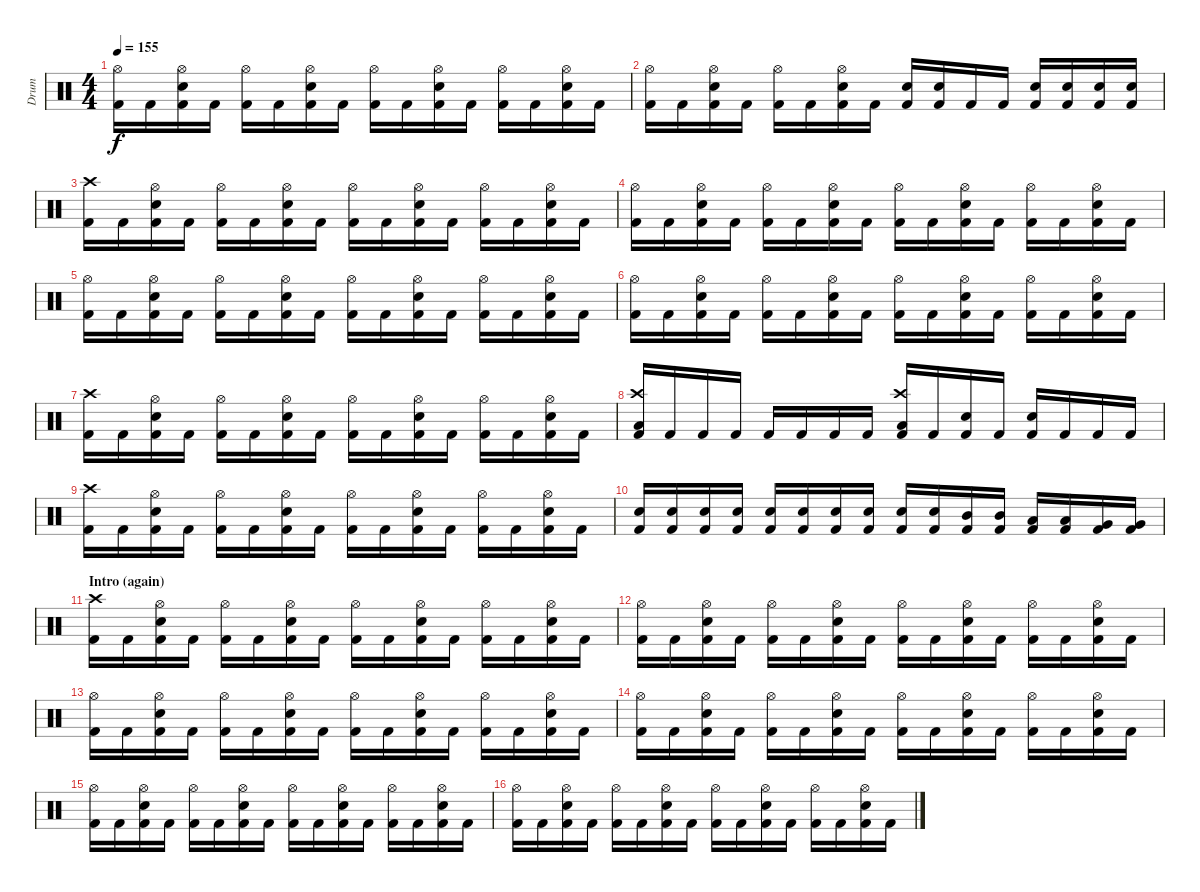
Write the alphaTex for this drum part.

\track ("Drum" "Drum") {instrument percussion}
\staff {score}
\articulation defaults
\ts (4 4)
\tempo 155
\clef neutral
\ks c
("Hi-Hat (open)" "Kick (hit) 2").16{dy f} "Kick (hit) 2".16 ("Hi-Hat (open)" "Electric Snare (hit)" "Kick (hit) 2").16 "Kick (hit) 2".16 ("Hi-Hat (open)" "Kick (hit) 2").16 "Kick (hit) 2".16 ("Hi-Hat (open)" "Electric Snare (hit)" "Kick (hit) 2").16 "Kick (hit) 2".16 ("Hi-Hat (open)" "Kick (hit) 2").16 "Kick (hit) 2".16 ("Hi-Hat (open)" "Electric Snare (hit)" "Kick (hit) 2").16 "Kick (hit) 2".16 ("Hi-Hat (open)" "Kick (hit) 2").16 "Kick (hit) 2".16 ("Hi-Hat (open)" "Electric Snare (hit)" "Kick (hit) 2").16 "Kick (hit) 2".16 |
("Hi-Hat (open)" "Kick (hit) 2").16 "Kick (hit) 2".16 ("Hi-Hat (open)" "Electric Snare (hit)" "Kick (hit) 2").16 "Kick (hit) 2".16 ("Hi-Hat (open)" "Kick (hit) 2").16 "Kick (hit) 2".16 ("Hi-Hat (open)" "Electric Snare (hit)" "Kick (hit) 2").16 "Kick (hit) 2".16 ("Electric Snare (hit)" "Kick (hit) 2").16 ("Electric Snare (hit)" "Kick (hit) 2").16 "Kick (hit) 2".16 "Kick (hit) 2".16 ("Electric Snare (hit)" "Kick (hit) 2").16 ("Electric Snare (hit)" "Kick (hit) 2").16 ("Electric Snare (hit)" "Kick (hit) 2").16 ("Electric Snare (hit)" "Kick (hit) 2").16 |
("Crash high (hit)" "Kick (hit) 2").16 "Kick (hit) 2".16 ("Hi-Hat (open)" "Electric Snare (hit)" "Kick (hit) 2").16 "Kick (hit) 2".16 ("Hi-Hat (open)" "Kick (hit) 2").16 "Kick (hit) 2".16 ("Hi-Hat (open)" "Electric Snare (hit)" "Kick (hit) 2").16 "Kick (hit) 2".16 ("Hi-Hat (open)" "Kick (hit) 2").16 "Kick (hit) 2".16 ("Hi-Hat (open)" "Electric Snare (hit)" "Kick (hit) 2").16 "Kick (hit) 2".16 ("Hi-Hat (open)" "Kick (hit) 2").16 "Kick (hit) 2".16 ("Hi-Hat (open)" "Electric Snare (hit)" "Kick (hit) 2").16 "Kick (hit) 2".16 |
("Hi-Hat (open)" "Kick (hit) 2").16 "Kick (hit) 2".16 ("Hi-Hat (open)" "Electric Snare (hit)" "Kick (hit) 2").16 "Kick (hit) 2".16 ("Hi-Hat (open)" "Kick (hit) 2").16 "Kick (hit) 2".16 ("Hi-Hat (open)" "Electric Snare (hit)" "Kick (hit) 2").16 "Kick (hit) 2".16 ("Hi-Hat (open)" "Kick (hit) 2").16 "Kick (hit) 2".16 ("Hi-Hat (open)" "Electric Snare (hit)" "Kick (hit) 2").16 "Kick (hit) 2".16 ("Hi-Hat (open)" "Kick (hit) 2").16 "Kick (hit) 2".16 ("Hi-Hat (open)" "Electric Snare (hit)" "Kick (hit) 2").16 "Kick (hit) 2".16 |
("Hi-Hat (open)" "Kick (hit) 2").16 "Kick (hit) 2".16 ("Hi-Hat (open)" "Electric Snare (hit)" "Kick (hit) 2").16 "Kick (hit) 2".16 ("Hi-Hat (open)" "Kick (hit) 2").16 "Kick (hit) 2".16 ("Hi-Hat (open)" "Electric Snare (hit)" "Kick (hit) 2").16 "Kick (hit) 2".16 ("Hi-Hat (open)" "Kick (hit) 2").16 "Kick (hit) 2".16 ("Hi-Hat (open)" "Electric Snare (hit)" "Kick (hit) 2").16 "Kick (hit) 2".16 ("Hi-Hat (open)" "Kick (hit) 2").16 "Kick (hit) 2".16 ("Hi-Hat (open)" "Electric Snare (hit)" "Kick (hit) 2").16 "Kick (hit) 2".16 |
("Hi-Hat (open)" "Kick (hit) 2").16 "Kick (hit) 2".16 ("Hi-Hat (open)" "Electric Snare (hit)" "Kick (hit) 2").16 "Kick (hit) 2".16 ("Hi-Hat (open)" "Kick (hit) 2").16 "Kick (hit) 2".16 ("Hi-Hat (open)" "Electric Snare (hit)" "Kick (hit) 2").16 "Kick (hit) 2".16 ("Hi-Hat (open)" "Kick (hit) 2").16 "Kick (hit) 2".16 ("Hi-Hat (open)" "Electric Snare (hit)" "Kick (hit) 2").16 "Kick (hit) 2".16 ("Hi-Hat (open)" "Kick (hit) 2").16 "Kick (hit) 2".16 ("Hi-Hat (open)" "Electric Snare (hit)" "Kick (hit) 2").16 "Kick (hit) 2".16 |
("Crash high (hit)" "Kick (hit) 2").16 "Kick (hit) 2".16 ("Hi-Hat (open)" "Electric Snare (hit)" "Kick (hit) 2").16 "Kick (hit) 2".16 ("Hi-Hat (open)" "Kick (hit) 2").16 "Kick (hit) 2".16 ("Hi-Hat (open)" "Electric Snare (hit)" "Kick (hit) 2").16 "Kick (hit) 2".16 ("Hi-Hat (open)" "Kick (hit) 2").16 "Kick (hit) 2".16 ("Hi-Hat (open)" "Electric Snare (hit)" "Kick (hit) 2").16 "Kick (hit) 2".16 ("Hi-Hat (open)" "Kick (hit) 2").16 "Kick (hit) 2".16 ("Hi-Hat (open)" "Electric Snare (hit)" "Kick (hit) 2").16 "Kick (hit) 2".16 |
("Crash high (hit)" "Low Tom (hit)" "Kick (hit) 2").16 "Kick (hit) 2".16 "Kick (hit) 2".16 "Kick (hit) 2".16 "Kick (hit) 2".16 "Kick (hit) 2".16 "Kick (hit) 2".16 "Kick (hit) 2".16 ("Crash high (hit)" "Low Tom (hit)" "Kick (hit) 2").16 "Kick (hit) 2".16 ("Electric Snare (hit)" "Kick (hit) 2").16 "Kick (hit) 2".16 ("Electric Snare (hit)" "Kick (hit) 2").16 "Kick (hit) 2".16 "Kick (hit) 2".16 "Kick (hit) 2".16 |
("Crash high (hit)" "Kick (hit) 2").16 "Kick (hit) 2".16 ("Hi-Hat (open)" "Electric Snare (hit)" "Kick (hit) 2").16 "Kick (hit) 2".16 ("Hi-Hat (open)" "Kick (hit) 2").16 "Kick (hit) 2".16 ("Hi-Hat (open)" "Electric Snare (hit)" "Kick (hit) 2").16 "Kick (hit) 2".16 ("Hi-Hat (open)" "Kick (hit) 2").16 "Kick (hit) 2".16 ("Hi-Hat (open)" "Electric Snare (hit)" "Kick (hit) 2").16 "Kick (hit) 2".16 ("Hi-Hat (open)" "Kick (hit) 2").16 "Kick (hit) 2".16 ("Hi-Hat (open)" "Electric Snare (hit)" "Kick (hit) 2").16 "Kick (hit) 2".16 |
("Electric Snare (hit)" "Kick (hit) 2").16 ("Electric Snare (hit)" "Kick (hit) 2").16 ("Electric Snare (hit)" "Kick (hit) 2").16 ("Electric Snare (hit)" "Kick (hit) 2").16 ("Electric Snare (hit)" "Kick (hit) 2").16 ("Electric Snare (hit)" "Kick (hit) 2").16 ("Electric Snare (hit)" "Kick (hit) 2").16 ("Electric Snare (hit)" "Kick (hit) 2").16 ("Electric Snare (hit)" "Kick (hit) 2").16 ("Electric Snare (hit)" "Kick (hit) 2").16 ("Mid Tom (hit)" "Kick (hit) 2").16 ("Mid Tom (hit)" "Kick (hit) 2").16 ("Low Tom (hit)" "Kick (hit) 2").16 ("Low Tom (hit)" "Kick (hit) 2").16 ("Very Low Tom (hit)" "Kick (hit) 2").16 ("Very Low Tom (hit)" "Kick (hit) 2").16 |
\section ("" "Intro (again)")
("Crash high (hit)" "Kick (hit) 2").16 "Kick (hit) 2".16 ("Hi-Hat (open)" "Electric Snare (hit)" "Kick (hit) 2").16 "Kick (hit) 2".16 ("Hi-Hat (open)" "Kick (hit) 2").16 "Kick (hit) 2".16 ("Hi-Hat (open)" "Electric Snare (hit)" "Kick (hit) 2").16 "Kick (hit) 2".16 ("Hi-Hat (open)" "Kick (hit) 2").16 "Kick (hit) 2".16 ("Hi-Hat (open)" "Electric Snare (hit)" "Kick (hit) 2").16 "Kick (hit) 2".16 ("Hi-Hat (open)" "Kick (hit) 2").16 "Kick (hit) 2".16 ("Hi-Hat (open)" "Electric Snare (hit)" "Kick (hit) 2").16 "Kick (hit) 2".16 |
("Hi-Hat (open)" "Kick (hit) 2").16 "Kick (hit) 2".16 ("Hi-Hat (open)" "Electric Snare (hit)" "Kick (hit) 2").16 "Kick (hit) 2".16 ("Hi-Hat (open)" "Kick (hit) 2").16 "Kick (hit) 2".16 ("Hi-Hat (open)" "Electric Snare (hit)" "Kick (hit) 2").16 "Kick (hit) 2".16 ("Hi-Hat (open)" "Kick (hit) 2").16 "Kick (hit) 2".16 ("Hi-Hat (open)" "Electric Snare (hit)" "Kick (hit) 2").16 "Kick (hit) 2".16 ("Hi-Hat (open)" "Kick (hit) 2").16 "Kick (hit) 2".16 ("Hi-Hat (open)" "Electric Snare (hit)" "Kick (hit) 2").16 "Kick (hit) 2".16 |
("Hi-Hat (open)" "Kick (hit) 2").16 "Kick (hit) 2".16 ("Hi-Hat (open)" "Electric Snare (hit)" "Kick (hit) 2").16 "Kick (hit) 2".16 ("Hi-Hat (open)" "Kick (hit) 2").16 "Kick (hit) 2".16 ("Hi-Hat (open)" "Electric Snare (hit)" "Kick (hit) 2").16 "Kick (hit) 2".16 ("Hi-Hat (open)" "Kick (hit) 2").16 "Kick (hit) 2".16 ("Hi-Hat (open)" "Electric Snare (hit)" "Kick (hit) 2").16 "Kick (hit) 2".16 ("Hi-Hat (open)" "Kick (hit) 2").16 "Kick (hit) 2".16 ("Hi-Hat (open)" "Electric Snare (hit)" "Kick (hit) 2").16 "Kick (hit) 2".16 |
("Hi-Hat (open)" "Kick (hit) 2").16 "Kick (hit) 2".16 ("Hi-Hat (open)" "Electric Snare (hit)" "Kick (hit) 2").16 "Kick (hit) 2".16 ("Hi-Hat (open)" "Kick (hit) 2").16 "Kick (hit) 2".16 ("Hi-Hat (open)" "Electric Snare (hit)" "Kick (hit) 2").16 "Kick (hit) 2".16 ("Hi-Hat (open)" "Kick (hit) 2").16 "Kick (hit) 2".16 ("Hi-Hat (open)" "Electric Snare (hit)" "Kick (hit) 2").16 "Kick (hit) 2".16 ("Hi-Hat (open)" "Kick (hit) 2").16 "Kick (hit) 2".16 ("Hi-Hat (open)" "Electric Snare (hit)" "Kick (hit) 2").16 "Kick (hit) 2".16 |
("Hi-Hat (open)" "Kick (hit) 2").16 "Kick (hit) 2".16 ("Hi-Hat (open)" "Electric Snare (hit)" "Kick (hit) 2").16 "Kick (hit) 2".16 ("Hi-Hat (open)" "Kick (hit) 2").16 "Kick (hit) 2".16 ("Hi-Hat (open)" "Electric Snare (hit)" "Kick (hit) 2").16 "Kick (hit) 2".16 ("Hi-Hat (open)" "Kick (hit) 2").16 "Kick (hit) 2".16 ("Hi-Hat (open)" "Electric Snare (hit)" "Kick (hit) 2").16 "Kick (hit) 2".16 ("Hi-Hat (open)" "Kick (hit) 2").16 "Kick (hit) 2".16 ("Hi-Hat (open)" "Electric Snare (hit)" "Kick (hit) 2").16 "Kick (hit) 2".16 |
("Hi-Hat (open)" "Kick (hit) 2").16 "Kick (hit) 2".16 ("Hi-Hat (open)" "Electric Snare (hit)" "Kick (hit) 2").16 "Kick (hit) 2".16 ("Hi-Hat (open)" "Kick (hit) 2").16 "Kick (hit) 2".16 ("Hi-Hat (open)" "Electric Snare (hit)" "Kick (hit) 2").16 "Kick (hit) 2".16 ("Hi-Hat (open)" "Kick (hit) 2").16 "Kick (hit) 2".16 ("Hi-Hat (open)" "Electric Snare (hit)" "Kick (hit) 2").16 "Kick (hit) 2".16 ("Hi-Hat (open)" "Kick (hit) 2").16 "Kick (hit) 2".16 ("Hi-Hat (open)" "Electric Snare (hit)" "Kick (hit) 2").16 "Kick (hit) 2".16
